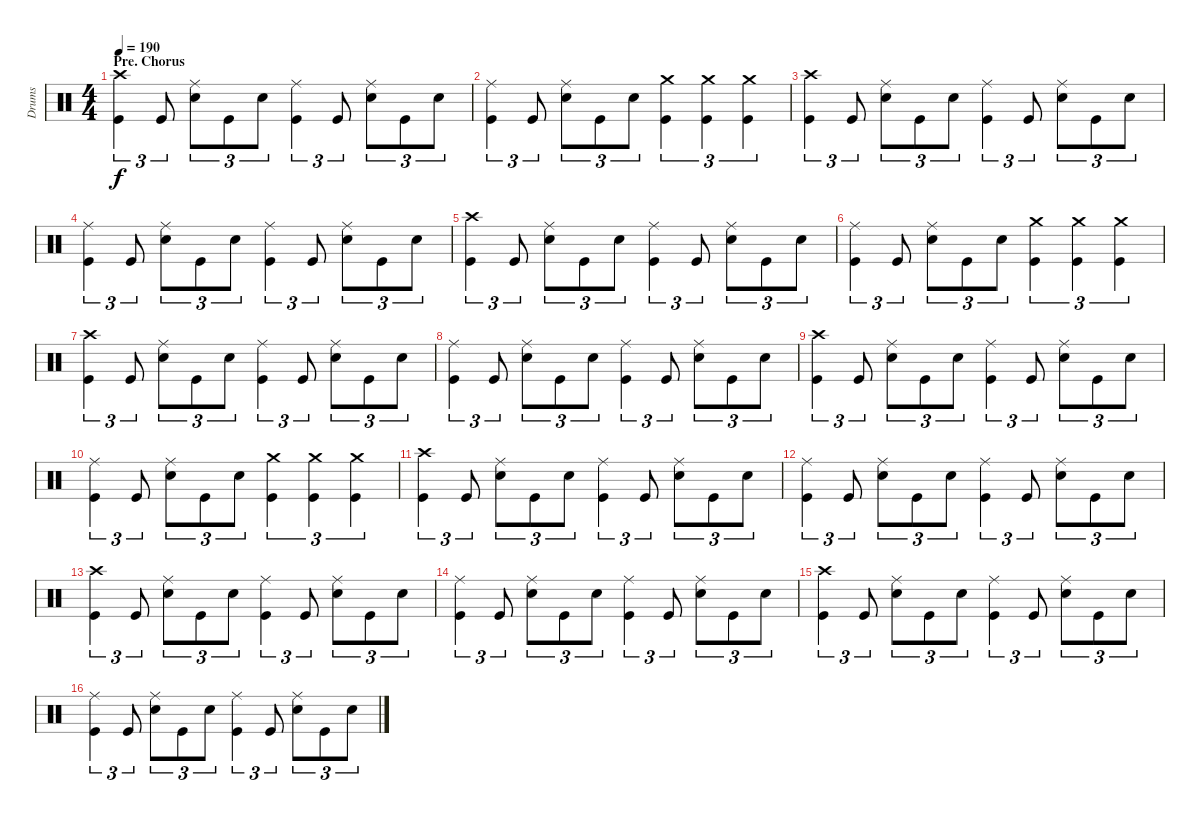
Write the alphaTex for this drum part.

\track ("Drums" "Drums") {instrument percussion}
\staff {score}
\articulation defaults
\ts (4 4)
\section ("" "Pre. Chorus")
\tempo 190
\clef neutral
\ks c
("Crash high (hit)" "Kick (hit)").4{tu (3 2) dy f} "Kick (hit)".8{tu (3 2)} ("Ride (middle)" "Snare (hit) 2").8{tu (3 2)} "Kick (hit)".8{tu (3 2)} "Snare (hit) 2".8{tu (3 2)} ("Ride (middle)" "Kick (hit)").4{tu (3 2)} "Kick (hit)".8{tu (3 2)} ("Ride (middle)" "Snare (hit) 2").8{tu (3 2)} "Kick (hit)".8{tu (3 2)} "Snare (hit) 2".8{tu (3 2)} |
("Ride (middle)" "Kick (hit)").4{tu (3 2)} "Kick (hit)".8{tu (3 2)} ("Ride (middle)" "Snare (hit) 2").8{tu (3 2)} "Kick (hit)".8{tu (3 2)} "Snare (hit) 2".8{tu (3 2)} ("Crash medium (hit)" "Kick (hit)").4{tu (3 2)} ("Crash medium (hit)" "Kick (hit)").4{tu (3 2)} ("Crash medium (hit)" "Kick (hit)").4{tu (3 2)} |
("Crash high (hit)" "Kick (hit)").4{tu (3 2)} "Kick (hit)".8{tu (3 2)} ("Ride (middle)" "Snare (hit) 2").8{tu (3 2)} "Kick (hit)".8{tu (3 2)} "Snare (hit) 2".8{tu (3 2)} ("Ride (middle)" "Kick (hit)").4{tu (3 2)} "Kick (hit)".8{tu (3 2)} ("Ride (middle)" "Snare (hit) 2").8{tu (3 2)} "Kick (hit)".8{tu (3 2)} "Snare (hit) 2".8{tu (3 2)} |
("Ride (middle)" "Kick (hit)").4{tu (3 2)} "Kick (hit)".8{tu (3 2)} ("Ride (middle)" "Snare (hit) 2").8{tu (3 2)} "Kick (hit)".8{tu (3 2)} "Snare (hit) 2".8{tu (3 2)} ("Ride (middle)" "Kick (hit)").4{tu (3 2)} "Kick (hit)".8{tu (3 2)} ("Ride (middle)" "Snare (hit) 2").8{tu (3 2)} "Kick (hit)".8{tu (3 2)} "Snare (hit) 2".8{tu (3 2)} |
("Crash high (hit)" "Kick (hit)").4{tu (3 2)} "Kick (hit)".8{tu (3 2)} ("Ride (middle)" "Snare (hit) 2").8{tu (3 2)} "Kick (hit)".8{tu (3 2)} "Snare (hit) 2".8{tu (3 2)} ("Ride (middle)" "Kick (hit)").4{tu (3 2)} "Kick (hit)".8{tu (3 2)} ("Ride (middle)" "Snare (hit) 2").8{tu (3 2)} "Kick (hit)".8{tu (3 2)} "Snare (hit) 2".8{tu (3 2)} |
("Ride (middle)" "Kick (hit)").4{tu (3 2)} "Kick (hit)".8{tu (3 2)} ("Ride (middle)" "Snare (hit) 2").8{tu (3 2)} "Kick (hit)".8{tu (3 2)} "Snare (hit) 2".8{tu (3 2)} ("Crash medium (hit)" "Kick (hit)").4{tu (3 2)} ("Crash medium (hit)" "Kick (hit)").4{tu (3 2)} ("Crash medium (hit)" "Kick (hit)").4{tu (3 2)} |
("Crash high (hit)" "Kick (hit)").4{tu (3 2)} "Kick (hit)".8{tu (3 2)} ("Ride (middle)" "Snare (hit) 2").8{tu (3 2)} "Kick (hit)".8{tu (3 2)} "Snare (hit) 2".8{tu (3 2)} ("Ride (middle)" "Kick (hit)").4{tu (3 2)} "Kick (hit)".8{tu (3 2)} ("Ride (middle)" "Snare (hit) 2").8{tu (3 2)} "Kick (hit)".8{tu (3 2)} "Snare (hit) 2".8{tu (3 2)} |
("Ride (middle)" "Kick (hit)").4{tu (3 2)} "Kick (hit)".8{tu (3 2)} ("Ride (middle)" "Snare (hit) 2").8{tu (3 2)} "Kick (hit)".8{tu (3 2)} "Snare (hit) 2".8{tu (3 2)} ("Ride (middle)" "Kick (hit)").4{tu (3 2)} "Kick (hit)".8{tu (3 2)} ("Ride (middle)" "Snare (hit) 2").8{tu (3 2)} "Kick (hit)".8{tu (3 2)} "Snare (hit) 2".8{tu (3 2)} |
("Crash high (hit)" "Kick (hit)").4{tu (3 2)} "Kick (hit)".8{tu (3 2)} ("Ride (middle)" "Snare (hit) 2").8{tu (3 2)} "Kick (hit)".8{tu (3 2)} "Snare (hit) 2".8{tu (3 2)} ("Ride (middle)" "Kick (hit)").4{tu (3 2)} "Kick (hit)".8{tu (3 2)} ("Ride (middle)" "Snare (hit) 2").8{tu (3 2)} "Kick (hit)".8{tu (3 2)} "Snare (hit) 2".8{tu (3 2)} |
("Ride (middle)" "Kick (hit)").4{tu (3 2)} "Kick (hit)".8{tu (3 2)} ("Ride (middle)" "Snare (hit) 2").8{tu (3 2)} "Kick (hit)".8{tu (3 2)} "Snare (hit) 2".8{tu (3 2)} ("Crash medium (hit)" "Kick (hit)").4{tu (3 2)} ("Crash medium (hit)" "Kick (hit)").4{tu (3 2)} ("Crash medium (hit)" "Kick (hit)").4{tu (3 2)} |
("Crash high (hit)" "Kick (hit)").4{tu (3 2)} "Kick (hit)".8{tu (3 2)} ("Ride (middle)" "Snare (hit) 2").8{tu (3 2)} "Kick (hit)".8{tu (3 2)} "Snare (hit) 2".8{tu (3 2)} ("Ride (middle)" "Kick (hit)").4{tu (3 2)} "Kick (hit)".8{tu (3 2)} ("Ride (middle)" "Snare (hit) 2").8{tu (3 2)} "Kick (hit)".8{tu (3 2)} "Snare (hit) 2".8{tu (3 2)} |
("Ride (middle)" "Kick (hit)").4{tu (3 2)} "Kick (hit)".8{tu (3 2)} ("Ride (middle)" "Snare (hit) 2").8{tu (3 2)} "Kick (hit)".8{tu (3 2)} "Snare (hit) 2".8{tu (3 2)} ("Ride (middle)" "Kick (hit)").4{tu (3 2)} "Kick (hit)".8{tu (3 2)} ("Ride (middle)" "Snare (hit) 2").8{tu (3 2)} "Kick (hit)".8{tu (3 2)} "Snare (hit) 2".8{tu (3 2)} |
("Crash high (hit)" "Kick (hit)").4{tu (3 2)} "Kick (hit)".8{tu (3 2)} ("Ride (middle)" "Snare (hit) 2").8{tu (3 2)} "Kick (hit)".8{tu (3 2)} "Snare (hit) 2".8{tu (3 2)} ("Ride (middle)" "Kick (hit)").4{tu (3 2)} "Kick (hit)".8{tu (3 2)} ("Ride (middle)" "Snare (hit) 2").8{tu (3 2)} "Kick (hit)".8{tu (3 2)} "Snare (hit) 2".8{tu (3 2)} |
("Ride (middle)" "Kick (hit)").4{tu (3 2)} "Kick (hit)".8{tu (3 2)} ("Ride (middle)" "Snare (hit) 2").8{tu (3 2)} "Kick (hit)".8{tu (3 2)} "Snare (hit) 2".8{tu (3 2)} ("Ride (middle)" "Kick (hit)").4{tu (3 2)} "Kick (hit)".8{tu (3 2)} ("Ride (middle)" "Snare (hit) 2").8{tu (3 2)} "Kick (hit)".8{tu (3 2)} "Snare (hit) 2".8{tu (3 2)} |
("Crash high (hit)" "Kick (hit)").4{tu (3 2)} "Kick (hit)".8{tu (3 2)} ("Ride (middle)" "Snare (hit) 2").8{tu (3 2)} "Kick (hit)".8{tu (3 2)} "Snare (hit) 2".8{tu (3 2)} ("Ride (middle)" "Kick (hit)").4{tu (3 2)} "Kick (hit)".8{tu (3 2)} ("Ride (middle)" "Snare (hit) 2").8{tu (3 2)} "Kick (hit)".8{tu (3 2)} "Snare (hit) 2".8{tu (3 2)} |
("Ride (middle)" "Kick (hit)").4{tu (3 2)} "Kick (hit)".8{tu (3 2)} ("Ride (middle)" "Snare (hit) 2").8{tu (3 2)} "Kick (hit)".8{tu (3 2)} "Snare (hit) 2".8{tu (3 2)} ("Ride (middle)" "Kick (hit)").4{tu (3 2)} "Kick (hit)".8{tu (3 2)} ("Ride (middle)" "Snare (hit) 2").8{tu (3 2)} "Kick (hit)".8{tu (3 2)} "Snare (hit) 2".8{tu (3 2)}
